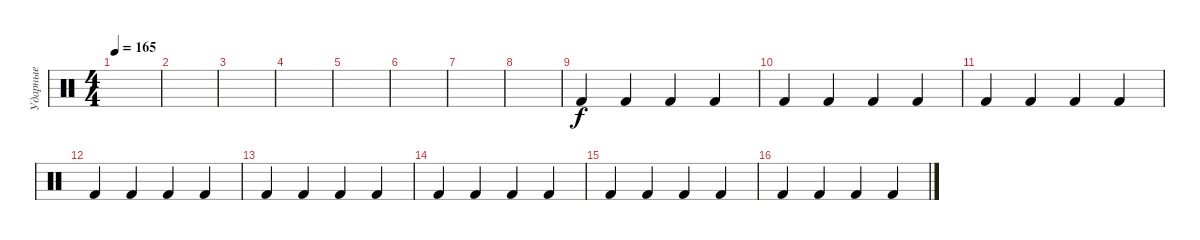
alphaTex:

\track ("Ударные" "Ударные") {instrument percussion}
\staff {score}
\articulation defaults
\ts (4 4)
\tempo 165
\clef neutral
\ks c
|
|
|
|
|
|
|
|
"Kick (hit) 2".4 "Kick (hit) 2".4 "Kick (hit) 2".4 "Kick (hit) 2".4 |
"Kick (hit) 2".4 "Kick (hit) 2".4 "Kick (hit) 2".4 "Kick (hit) 2".4 |
"Kick (hit) 2".4 "Kick (hit) 2".4 "Kick (hit) 2".4 "Kick (hit) 2".4 |
"Kick (hit) 2".4 "Kick (hit) 2".4 "Kick (hit) 2".4 "Kick (hit) 2".4 |
"Kick (hit) 2".4 "Kick (hit) 2".4 "Kick (hit) 2".4 "Kick (hit) 2".4 |
"Kick (hit) 2".4 "Kick (hit) 2".4 "Kick (hit) 2".4 "Kick (hit) 2".4 |
"Kick (hit) 2".4 "Kick (hit) 2".4 "Kick (hit) 2".4 "Kick (hit) 2".4 |
"Kick (hit) 2".4 "Kick (hit) 2".4 "Kick (hit) 2".4 "Kick (hit) 2".4
